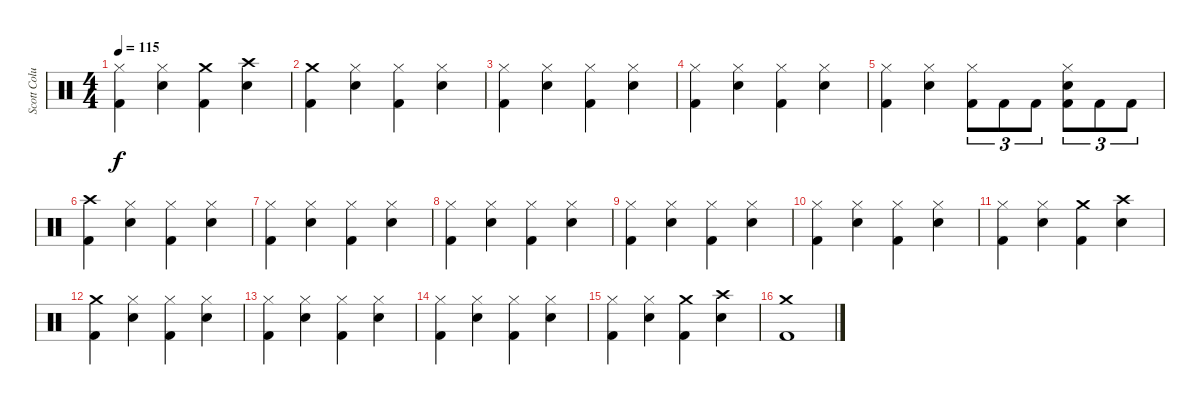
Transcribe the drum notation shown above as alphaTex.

\track ("Scott Columus(Drums)" "Scott Colu") {instrument percussion}
\staff {score}
\articulation defaults
\ts (4 4)
\tempo 115
\clef neutral
\ks c
("Hi-Hat (closed)" "Kick (hit) 2").4{dy f} ("Hi-Hat (closed)" "Snare (hit) 2").4 ("Crash medium (hit)" "Kick (hit) 2").4 ("Crash high (hit)" "Snare (hit) 2").4 |
("Crash medium (hit)" "Kick (hit) 2").4 ("Hi-Hat (closed)" "Snare (hit) 2").4 ("Hi-Hat (closed)" "Kick (hit) 2").4 ("Hi-Hat (closed)" "Snare (hit) 2").4 |
("Hi-Hat (closed)" "Kick (hit) 2").4 ("Hi-Hat (closed)" "Snare (hit) 2").4 ("Hi-Hat (closed)" "Kick (hit) 2").4 ("Hi-Hat (closed)" "Snare (hit) 2").4 |
("Hi-Hat (closed)" "Kick (hit) 2").4 ("Hi-Hat (closed)" "Snare (hit) 2").4 ("Hi-Hat (closed)" "Kick (hit) 2").4 ("Hi-Hat (closed)" "Snare (hit) 2").4 |
("Hi-Hat (closed)" "Kick (hit) 2").4 ("Hi-Hat (closed)" "Snare (hit) 2").4 ("Hi-Hat (closed)" "Kick (hit) 2").8{tu (3 2)} "Kick (hit) 2".8{tu (3 2)} "Kick (hit) 2".8{tu (3 2)} ("Hi-Hat (closed)" "Snare (hit) 2" "Kick (hit) 2").8{tu (3 2)} "Kick (hit) 2".8{tu (3 2)} "Kick (hit) 2".8{tu (3 2)} |
("Crash high (hit)" "Kick (hit) 2").4 ("Hi-Hat (closed)" "Snare (hit) 2").4 ("Hi-Hat (closed)" "Kick (hit) 2").4 ("Hi-Hat (closed)" "Snare (hit) 2").4 |
("Hi-Hat (closed)" "Kick (hit) 2").4 ("Hi-Hat (closed)" "Snare (hit) 2").4 ("Hi-Hat (closed)" "Kick (hit) 2").4 ("Hi-Hat (closed)" "Snare (hit) 2").4 |
("Hi-Hat (closed)" "Kick (hit) 2").4 ("Hi-Hat (closed)" "Snare (hit) 2").4 ("Hi-Hat (closed)" "Kick (hit) 2").4 ("Hi-Hat (closed)" "Snare (hit) 2").4 |
("Hi-Hat (closed)" "Kick (hit) 2").4 ("Hi-Hat (closed)" "Snare (hit) 2").4 ("Hi-Hat (closed)" "Kick (hit) 2").4 ("Hi-Hat (closed)" "Snare (hit) 2").4 |
("Hi-Hat (closed)" "Kick (hit) 2").4 ("Hi-Hat (closed)" "Snare (hit) 2").4 ("Hi-Hat (closed)" "Kick (hit) 2").4 ("Hi-Hat (closed)" "Snare (hit) 2").4 |
("Hi-Hat (closed)" "Kick (hit) 2").4 ("Hi-Hat (closed)" "Snare (hit) 2").4 ("Crash medium (hit)" "Kick (hit) 2").4 ("Crash high (hit)" "Snare (hit) 2").4 |
("Crash medium (hit)" "Kick (hit) 2").4 ("Hi-Hat (closed)" "Snare (hit) 2").4 ("Hi-Hat (closed)" "Kick (hit) 2").4 ("Hi-Hat (closed)" "Snare (hit) 2").4 |
("Hi-Hat (closed)" "Kick (hit) 2").4 ("Hi-Hat (closed)" "Snare (hit) 2").4 ("Hi-Hat (closed)" "Kick (hit) 2").4 ("Hi-Hat (closed)" "Snare (hit) 2").4 |
("Hi-Hat (closed)" "Kick (hit) 2").4 ("Hi-Hat (closed)" "Snare (hit) 2").4 ("Hi-Hat (closed)" "Kick (hit) 2").4 ("Hi-Hat (closed)" "Snare (hit) 2").4 |
("Hi-Hat (closed)" "Kick (hit) 2").4 ("Hi-Hat (closed)" "Snare (hit) 2").4 ("Crash medium (hit)" "Kick (hit) 2").4 ("Crash high (hit)" "Snare (hit) 2").4 |
("Crash medium (hit)" "Kick (hit) 2").1
